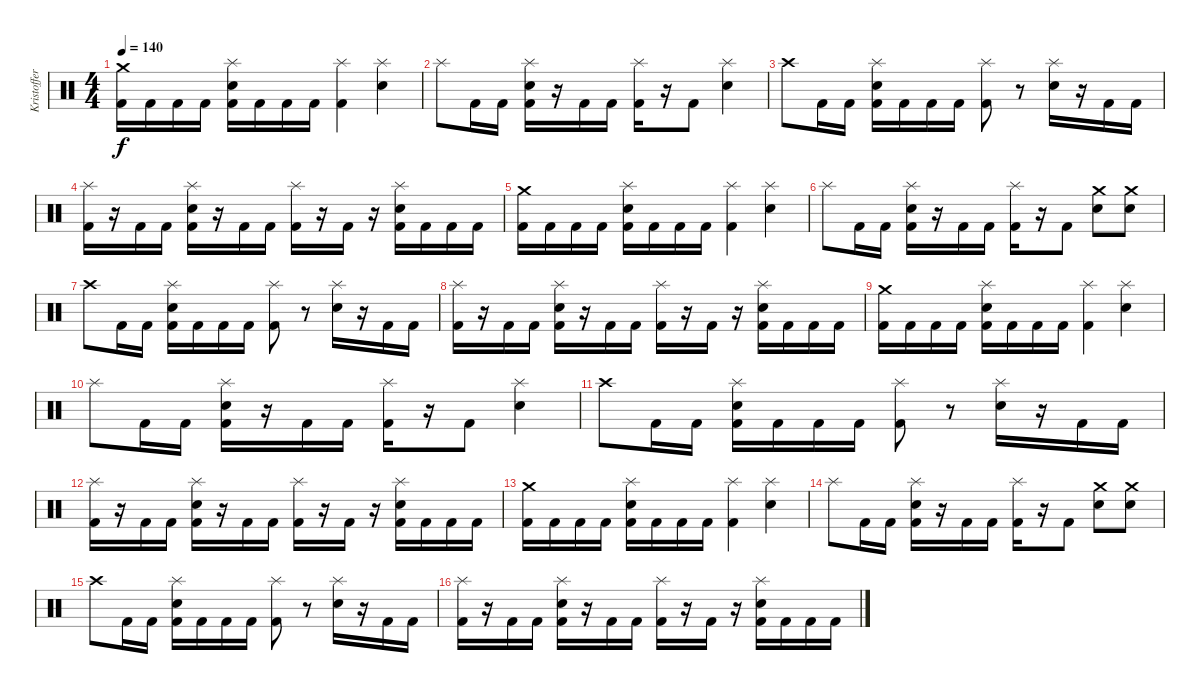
\track ("Kristoffer (Drums)" "Kristoffer") {instrument percussion}
\staff {score}
\articulation defaults
\ts (4 4)
\tempo 140
\clef neutral
\ks c
("Kick (hit) 2" "Crash medium (hit)").16{dy f} "Kick (hit) 2".16 "Kick (hit) 2".16 "Kick (hit) 2".16 ("Kick (hit) 2" "Electric Snare (hit)" "Splash (hit)").16 "Kick (hit) 2".16 "Kick (hit) 2".16 "Kick (hit) 2".16 ("Kick (hit) 2" "Splash (hit)").4 ("Electric Snare (hit)" "Splash (hit)").4 |
"Splash (hit)".8 "Kick (hit) 2".16 "Kick (hit) 2".16 ("Kick (hit) 2" "Electric Snare (hit)" "Splash (hit)").16 r.16 "Kick (hit) 2".16 "Kick (hit) 2".16 ("Kick (hit) 2" "Splash (hit)").16 r.16 "Kick (hit) 2".8 ("Electric Snare (hit)" "Splash (hit)").4 |
"Crash high (hit)".8 "Kick (hit) 2".16 "Kick (hit) 2".16 ("Kick (hit) 2" "Electric Snare (hit)" "Splash (hit)").16 "Kick (hit) 2".16 "Kick (hit) 2".16 "Kick (hit) 2".16 ("Kick (hit) 2" "Splash (hit)").8 r.8 ("Electric Snare (hit)" "Splash (hit)").16 r.16 "Kick (hit) 2".16 "Kick (hit) 2".16 |
("Kick (hit) 2" "Splash (hit)").16 r.16 "Kick (hit) 2".16 "Kick (hit) 2".16 ("Kick (hit) 2" "Electric Snare (hit)" "Splash (hit)").16 r.16 "Kick (hit) 2".16 "Kick (hit) 2".16 ("Kick (hit) 2" "Splash (hit)").16 r.16 "Kick (hit) 2".16 r.16 ("Kick (hit) 2" "Electric Snare (hit)" "Splash (hit)").16 "Kick (hit) 2".16 "Kick (hit) 2".16 "Kick (hit) 2".16 |
("Kick (hit) 2" "Crash medium (hit)").16 "Kick (hit) 2".16 "Kick (hit) 2".16 "Kick (hit) 2".16 ("Kick (hit) 2" "Electric Snare (hit)" "Splash (hit)").16 "Kick (hit) 2".16 "Kick (hit) 2".16 "Kick (hit) 2".16 ("Kick (hit) 2" "Splash (hit)").4 ("Electric Snare (hit)" "Splash (hit)").4 |
"Splash (hit)".8 "Kick (hit) 2".16 "Kick (hit) 2".16 ("Kick (hit) 2" "Electric Snare (hit)" "Splash (hit)").16 r.16 "Kick (hit) 2".16 "Kick (hit) 2".16 ("Kick (hit) 2" "Splash (hit)").16 r.16 "Kick (hit) 2".8 ("Electric Snare (hit)" "Crash medium (hit)").8 ("Electric Snare (hit)" "Crash medium (hit)").8 |
"Crash high (hit)".8 "Kick (hit) 2".16 "Kick (hit) 2".16 ("Kick (hit) 2" "Electric Snare (hit)" "Splash (hit)").16 "Kick (hit) 2".16 "Kick (hit) 2".16 "Kick (hit) 2".16 ("Kick (hit) 2" "Splash (hit)").8 r.8 ("Electric Snare (hit)" "Splash (hit)").16 r.16 "Kick (hit) 2".16 "Kick (hit) 2".16 |
("Kick (hit) 2" "Splash (hit)").16 r.16 "Kick (hit) 2".16 "Kick (hit) 2".16 ("Kick (hit) 2" "Electric Snare (hit)" "Splash (hit)").16 r.16 "Kick (hit) 2".16 "Kick (hit) 2".16 ("Kick (hit) 2" "Splash (hit)").16 r.16 "Kick (hit) 2".16 r.16 ("Kick (hit) 2" "Electric Snare (hit)" "Splash (hit)").16 "Kick (hit) 2".16 "Kick (hit) 2".16 "Kick (hit) 2".16 |
("Kick (hit) 2" "Crash medium (hit)").16 "Kick (hit) 2".16 "Kick (hit) 2".16 "Kick (hit) 2".16 ("Kick (hit) 2" "Electric Snare (hit)" "Splash (hit)").16 "Kick (hit) 2".16 "Kick (hit) 2".16 "Kick (hit) 2".16 ("Kick (hit) 2" "Splash (hit)").4 ("Electric Snare (hit)" "Splash (hit)").4 |
"Splash (hit)".8 "Kick (hit) 2".16 "Kick (hit) 2".16 ("Kick (hit) 2" "Electric Snare (hit)" "Splash (hit)").16 r.16 "Kick (hit) 2".16 "Kick (hit) 2".16 ("Kick (hit) 2" "Splash (hit)").16 r.16 "Kick (hit) 2".8 ("Electric Snare (hit)" "Splash (hit)").4 |
"Crash high (hit)".8 "Kick (hit) 2".16 "Kick (hit) 2".16 ("Kick (hit) 2" "Electric Snare (hit)" "Splash (hit)").16 "Kick (hit) 2".16 "Kick (hit) 2".16 "Kick (hit) 2".16 ("Kick (hit) 2" "Splash (hit)").8 r.8 ("Electric Snare (hit)" "Splash (hit)").16 r.16 "Kick (hit) 2".16 "Kick (hit) 2".16 |
("Kick (hit) 2" "Splash (hit)").16 r.16 "Kick (hit) 2".16 "Kick (hit) 2".16 ("Kick (hit) 2" "Electric Snare (hit)" "Splash (hit)").16 r.16 "Kick (hit) 2".16 "Kick (hit) 2".16 ("Kick (hit) 2" "Splash (hit)").16 r.16 "Kick (hit) 2".16 r.16 ("Kick (hit) 2" "Electric Snare (hit)" "Splash (hit)").16 "Kick (hit) 2".16 "Kick (hit) 2".16 "Kick (hit) 2".16 |
("Kick (hit) 2" "Crash medium (hit)").16 "Kick (hit) 2".16 "Kick (hit) 2".16 "Kick (hit) 2".16 ("Kick (hit) 2" "Electric Snare (hit)" "Splash (hit)").16 "Kick (hit) 2".16 "Kick (hit) 2".16 "Kick (hit) 2".16 ("Kick (hit) 2" "Splash (hit)").4 ("Electric Snare (hit)" "Splash (hit)").4 |
"Splash (hit)".8 "Kick (hit) 2".16 "Kick (hit) 2".16 ("Kick (hit) 2" "Electric Snare (hit)" "Splash (hit)").16 r.16 "Kick (hit) 2".16 "Kick (hit) 2".16 ("Kick (hit) 2" "Splash (hit)").16 r.16 "Kick (hit) 2".8 ("Electric Snare (hit)" "Crash medium (hit)").8 ("Electric Snare (hit)" "Crash medium (hit)").8 |
"Crash high (hit)".8 "Kick (hit) 2".16 "Kick (hit) 2".16 ("Kick (hit) 2" "Electric Snare (hit)" "Splash (hit)").16 "Kick (hit) 2".16 "Kick (hit) 2".16 "Kick (hit) 2".16 ("Kick (hit) 2" "Splash (hit)").8 r.8 ("Electric Snare (hit)" "Splash (hit)").16 r.16 "Kick (hit) 2".16 "Kick (hit) 2".16 |
("Kick (hit) 2" "Splash (hit)").16 r.16 "Kick (hit) 2".16 "Kick (hit) 2".16 ("Kick (hit) 2" "Electric Snare (hit)" "Splash (hit)").16 r.16 "Kick (hit) 2".16 "Kick (hit) 2".16 ("Kick (hit) 2" "Splash (hit)").16 r.16 "Kick (hit) 2".16 r.16 ("Kick (hit) 2" "Electric Snare (hit)" "Splash (hit)").16 "Kick (hit) 2".16 "Kick (hit) 2".16 "Kick (hit) 2".16
